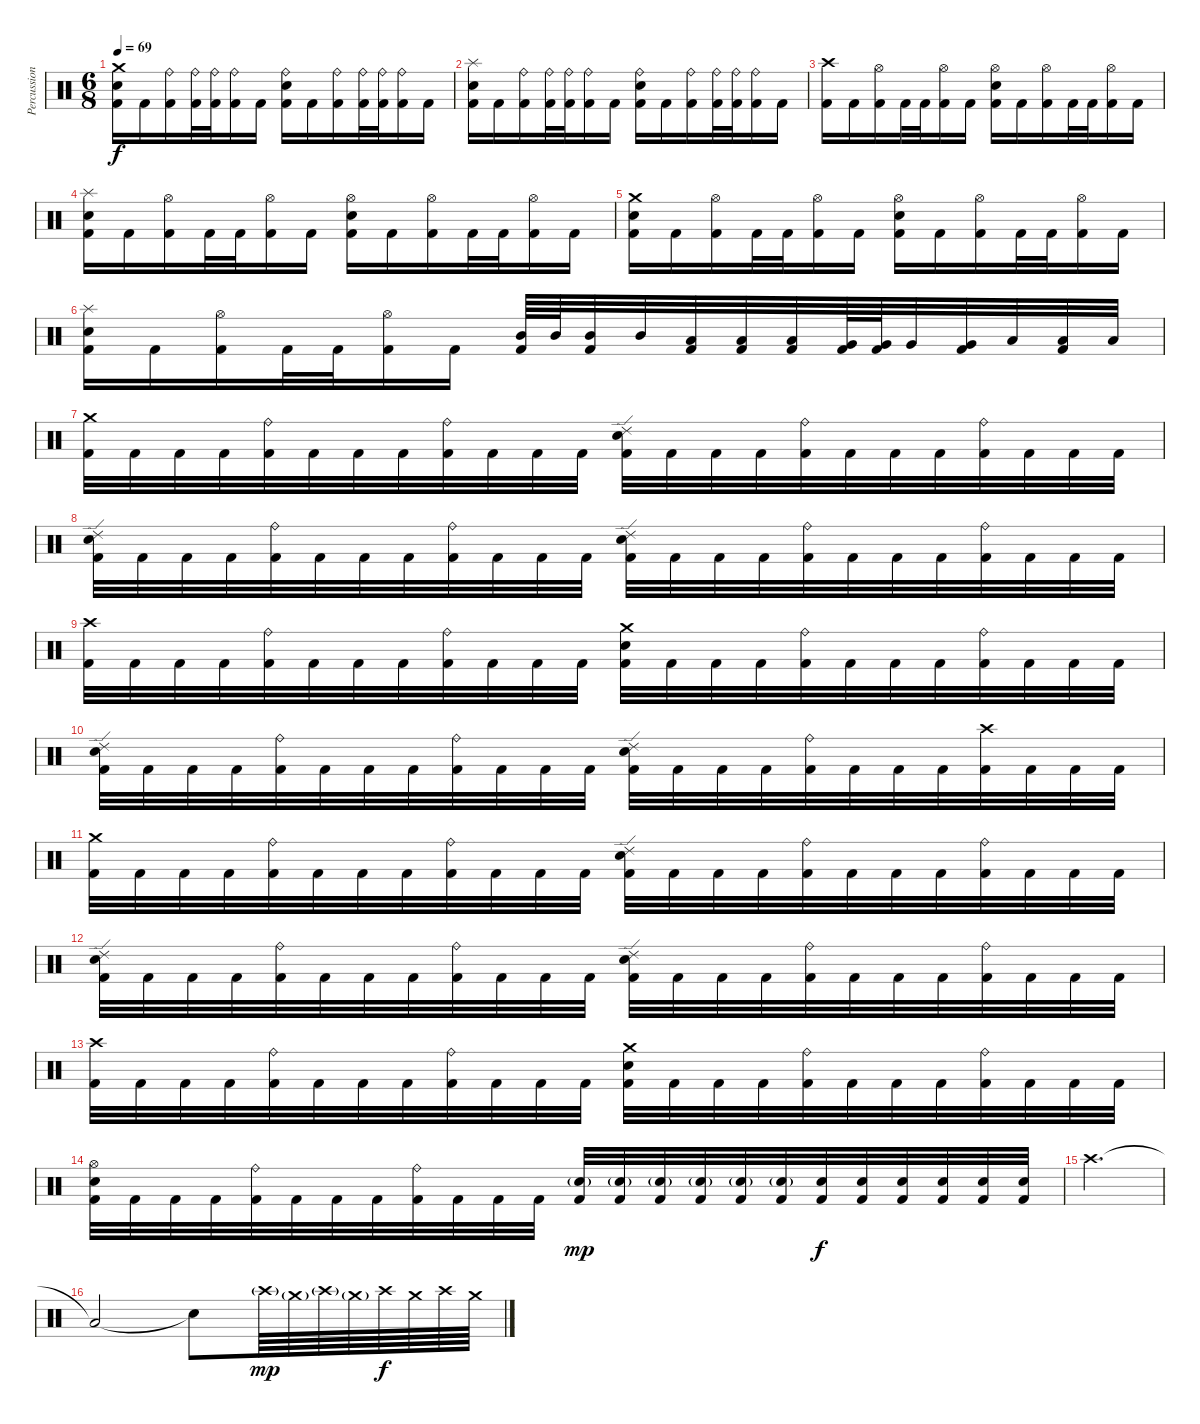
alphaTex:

\track ("Percussion" "Percussion") {instrument percussion}
\staff {score}
\articulation defaults
\ts (6 8)
\tempo 69
\clef neutral
\ks c
("Crash medium (hit)" "Snare (hit) 2" "Kick (hit) 2").16{dy f} "Kick (hit) 2".16 ("Ride (bell)" "Kick (hit) 2").16 ("Ride (bell)" "Kick (hit) 2").32 ("Ride (bell)" "Kick (hit) 2").32 ("Ride (bell)" "Kick (hit) 2").16 "Kick (hit) 2".16 ("Ride (bell)" "Snare (hit) 2" "Kick (hit) 2").16 "Kick (hit) 2".16 ("Ride (bell)" "Kick (hit) 2").16 ("Ride (bell)" "Kick (hit) 2").32 ("Ride (bell)" "Kick (hit) 2").32 ("Ride (bell)" "Kick (hit) 2").16 "Kick (hit) 2".16 |
("Splash (hit)" "Snare (hit) 2" "Kick (hit) 2").16 "Kick (hit) 2".16 ("Ride (bell)" "Kick (hit) 2").16 ("Ride (bell)" "Kick (hit) 2").32 ("Ride (bell)" "Kick (hit) 2").32 ("Ride (bell)" "Kick (hit) 2").16 "Kick (hit) 2".16 ("Ride (bell)" "Snare (hit) 2" "Kick (hit) 2").16 "Kick (hit) 2".16 ("Ride (bell)" "Kick (hit) 2").16 ("Ride (bell)" "Kick (hit) 2").32 ("Ride (bell)" "Kick (hit) 2").32 ("Ride (bell)" "Kick (hit) 2").16 "Kick (hit) 2".16 |
("Crash high (hit)" "Kick (hit) 2").16 "Kick (hit) 2".16 ("Hi-Hat (open)" "Kick (hit) 2").16 "Kick (hit) 2".32 "Kick (hit) 2".32 ("Hi-Hat (open)" "Kick (hit) 2").16 "Kick (hit) 2".16 ("Hi-Hat (open)" "Snare (hit) 2" "Kick (hit) 2").16 "Kick (hit) 2".16 ("Hi-Hat (open)" "Kick (hit) 2").16 "Kick (hit) 2".32 "Kick (hit) 2".32 ("Hi-Hat (open)" "Kick (hit) 2").16 "Kick (hit) 2".16 |
("Splash (hit)" "Snare (hit) 2" "Kick (hit) 2").16 "Kick (hit) 2".16 ("Hi-Hat (open)" "Kick (hit) 2").16 "Kick (hit) 2".32 "Kick (hit) 2".32 ("Hi-Hat (open)" "Kick (hit) 2").16 "Kick (hit) 2".16 ("Hi-Hat (open)" "Snare (hit) 2" "Kick (hit) 2").16 "Kick (hit) 2".16 ("Hi-Hat (open)" "Kick (hit) 2").16 "Kick (hit) 2".32 "Kick (hit) 2".32 ("Hi-Hat (open)" "Kick (hit) 2").16 "Kick (hit) 2".16 |
("Crash medium (hit)" "Snare (hit) 2" "Kick (hit) 2").16 "Kick (hit) 2".16 ("Hi-Hat (open)" "Kick (hit) 2").16 "Kick (hit) 2".32 "Kick (hit) 2".32 ("Hi-Hat (open)" "Kick (hit) 2").16 "Kick (hit) 2".16 ("Hi-Hat (open)" "Snare (hit) 2" "Kick (hit) 2").16 "Kick (hit) 2".16 ("Hi-Hat (open)" "Kick (hit) 2").16 "Kick (hit) 2".32 "Kick (hit) 2".32 ("Hi-Hat (open)" "Kick (hit) 2").16 "Kick (hit) 2".16 |
("Splash (hit)" "Snare (hit) 2" "Kick (hit) 2").16 "Kick (hit) 2".16 ("Hi-Hat (open)" "Kick (hit) 2").16 "Kick (hit) 2".32 "Kick (hit) 2".32 ("Hi-Hat (open)" "Kick (hit) 2").16 "Kick (hit) 2".16 ("Mid Tom (hit)" "Kick (hit) 2").64 "Mid Tom (hit)".64 ("Mid Tom (hit)" "Kick (hit) 2").32 "Mid Tom (hit)".32 ("Low Tom (hit)" "Kick (hit) 2").32 ("Low Tom (hit)" "Kick (hit) 2").32 ("Low Tom (hit)" "Kick (hit) 2").32 ("Very Low Tom (hit)" "Kick (hit) 2").64 ("Very Low Tom (hit)" "Kick (hit) 2").64 "Very Low Tom (hit)".32 ("Very Low Tom (hit)" "Kick (hit) 2").32 "Low Floor Tom (hit)".32 ("Low Floor Tom (hit)" "Kick (hit) 2").32 "Low Floor Tom (hit)".32 |
("Crash medium (hit)" "Kick (hit) 2").32 "Kick (hit) 2".32 "Kick (hit) 2".32 "Kick (hit) 2".32 ("Ride (bell)" "Kick (hit) 2").32 "Kick (hit) 2".32 "Kick (hit) 2".32 "Kick (hit) 2".32 ("Ride (bell)" "Kick (hit) 2").32 "Kick (hit) 2".32 "Kick (hit) 2".32 "Kick (hit) 2".32 ("Ride (edge) 2" "Snare (hit) 2" "Kick (hit) 2").32 "Kick (hit) 2".32 "Kick (hit) 2".32 "Kick (hit) 2".32 ("Ride (bell)" "Kick (hit) 2").32 "Kick (hit) 2".32 "Kick (hit) 2".32 "Kick (hit) 2".32 ("Ride (bell)" "Kick (hit) 2").32 "Kick (hit) 2".32 "Kick (hit) 2".32 "Kick (hit) 2".32 |
("Ride (edge) 2" "Snare (hit) 2" "Kick (hit) 2").32 "Kick (hit) 2".32 "Kick (hit) 2".32 "Kick (hit) 2".32 ("Ride (bell)" "Kick (hit) 2").32 "Kick (hit) 2".32 "Kick (hit) 2".32 "Kick (hit) 2".32 ("Ride (bell)" "Kick (hit) 2").32 "Kick (hit) 2".32 "Kick (hit) 2".32 "Kick (hit) 2".32 ("Ride (edge) 2" "Snare (hit) 2" "Kick (hit) 2").32 "Kick (hit) 2".32 "Kick (hit) 2".32 "Kick (hit) 2".32 ("Ride (bell)" "Kick (hit) 2").32 "Kick (hit) 2".32 "Kick (hit) 2".32 "Kick (hit) 2".32 ("Ride (bell)" "Kick (hit) 2").32 "Kick (hit) 2".32 "Kick (hit) 2".32 "Kick (hit) 2".32 |
("Crash high (hit)" "Kick (hit) 2").32 "Kick (hit) 2".32 "Kick (hit) 2".32 "Kick (hit) 2".32 ("Ride (bell)" "Kick (hit) 2").32 "Kick (hit) 2".32 "Kick (hit) 2".32 "Kick (hit) 2".32 ("Ride (bell)" "Kick (hit) 2").32 "Kick (hit) 2".32 "Kick (hit) 2".32 "Kick (hit) 2".32 ("Crash medium (hit)" "Snare (hit) 2" "Kick (hit) 2").32 "Kick (hit) 2".32 "Kick (hit) 2".32 "Kick (hit) 2".32 ("Ride (bell)" "Kick (hit) 2").32 "Kick (hit) 2".32 "Kick (hit) 2".32 "Kick (hit) 2".32 ("Ride (bell)" "Kick (hit) 2").32 "Kick (hit) 2".32 "Kick (hit) 2".32 "Kick (hit) 2".32 |
("Ride (edge) 2" "Snare (hit) 2" "Kick (hit) 2").32 "Kick (hit) 2".32 "Kick (hit) 2".32 "Kick (hit) 2".32 ("Ride (bell)" "Kick (hit) 2").32 "Kick (hit) 2".32 "Kick (hit) 2".32 "Kick (hit) 2".32 ("Ride (bell)" "Kick (hit) 2").32 "Kick (hit) 2".32 "Kick (hit) 2".32 "Kick (hit) 2".32 ("Ride (edge) 2" "Snare (hit) 2" "Kick (hit) 2").32 "Kick (hit) 2".32 "Kick (hit) 2".32 "Kick (hit) 2".32 ("Ride (bell)" "Kick (hit) 2").32 "Kick (hit) 2".32 "Kick (hit) 2".32 "Kick (hit) 2".32 ("Crash high (hit)" "Kick (hit) 2").32 "Kick (hit) 2".32 "Kick (hit) 2".32 "Kick (hit) 2".32 |
("Crash medium (hit)" "Kick (hit) 2").32 "Kick (hit) 2".32 "Kick (hit) 2".32 "Kick (hit) 2".32 ("Ride (bell)" "Kick (hit) 2").32 "Kick (hit) 2".32 "Kick (hit) 2".32 "Kick (hit) 2".32 ("Ride (bell)" "Kick (hit) 2").32 "Kick (hit) 2".32 "Kick (hit) 2".32 "Kick (hit) 2".32 ("Ride (edge) 2" "Snare (hit) 2" "Kick (hit) 2").32 "Kick (hit) 2".32 "Kick (hit) 2".32 "Kick (hit) 2".32 ("Ride (bell)" "Kick (hit) 2").32 "Kick (hit) 2".32 "Kick (hit) 2".32 "Kick (hit) 2".32 ("Ride (bell)" "Kick (hit) 2").32 "Kick (hit) 2".32 "Kick (hit) 2".32 "Kick (hit) 2".32 |
("Ride (edge) 2" "Snare (hit) 2" "Kick (hit) 2").32 "Kick (hit) 2".32 "Kick (hit) 2".32 "Kick (hit) 2".32 ("Ride (bell)" "Kick (hit) 2").32 "Kick (hit) 2".32 "Kick (hit) 2".32 "Kick (hit) 2".32 ("Ride (bell)" "Kick (hit) 2").32 "Kick (hit) 2".32 "Kick (hit) 2".32 "Kick (hit) 2".32 ("Ride (edge) 2" "Snare (hit) 2" "Kick (hit) 2").32 "Kick (hit) 2".32 "Kick (hit) 2".32 "Kick (hit) 2".32 ("Ride (bell)" "Kick (hit) 2").32 "Kick (hit) 2".32 "Kick (hit) 2".32 "Kick (hit) 2".32 ("Ride (bell)" "Kick (hit) 2").32 "Kick (hit) 2".32 "Kick (hit) 2".32 "Kick (hit) 2".32 |
("Crash high (hit)" "Kick (hit) 2").32 "Kick (hit) 2".32 "Kick (hit) 2".32 "Kick (hit) 2".32 ("Ride (bell)" "Kick (hit) 2").32 "Kick (hit) 2".32 "Kick (hit) 2".32 "Kick (hit) 2".32 ("Ride (bell)" "Kick (hit) 2").32 "Kick (hit) 2".32 "Kick (hit) 2".32 "Kick (hit) 2".32 ("Crash medium (hit)" "Snare (hit) 2" "Kick (hit) 2").32 "Kick (hit) 2".32 "Kick (hit) 2".32 "Kick (hit) 2".32 ("Ride (bell)" "Kick (hit) 2").32 "Kick (hit) 2".32 "Kick (hit) 2".32 "Kick (hit) 2".32 ("Ride (bell)" "Kick (hit) 2").32 "Kick (hit) 2".32 "Kick (hit) 2".32 "Kick (hit) 2".32 |
("Hi-Hat (open)" "Snare (hit) 2" "Kick (hit) 2").32 "Kick (hit) 2".32 "Kick (hit) 2".32 "Kick (hit) 2".32 ("Ride (bell)" "Kick (hit) 2").32 "Kick (hit) 2".32 "Kick (hit) 2".32 "Kick (hit) 2".32 ("Ride (bell)" "Kick (hit) 2").32 "Kick (hit) 2".32 "Kick (hit) 2".32 "Kick (hit) 2".32 ("Snare (hit) 2"{g} "Kick (hit) 2").32{dy mp} ("Snare (hit) 2"{g} "Kick (hit) 2").32 ("Snare (hit) 2"{g} "Kick (hit) 2").32 ("Snare (hit) 2"{g} "Kick (hit) 2").32 ("Snare (hit) 2"{g} "Kick (hit) 2").32 ("Snare (hit) 2"{g} "Kick (hit) 2").32 ("Snare (hit) 2" "Kick (hit) 2").32{dy f} ("Snare (hit) 2" "Kick (hit) 2").32 ("Snare (hit) 2" "Kick (hit) 2").32 ("Snare (hit) 2" "Kick (hit) 2").32 ("Snare (hit) 2" "Kick (hit) 2").32 ("Snare (hit) 2" "Kick (hit) 2").32 |
"Crash high (hit)".2{d} |
"Low Floor Tom (hit)"{t}.2 "Snare (hit)"{t}.8 "Crash high (hit)"{g}.64{dy mp} "Crash medium (hit)"{g}.64 "Crash high (hit)"{g}.64 "Crash medium (hit)"{g}.64 "Crash high (hit)".64{dy f} "Crash medium (hit)".64 "Crash high (hit)".64 "Crash medium (hit)".64
